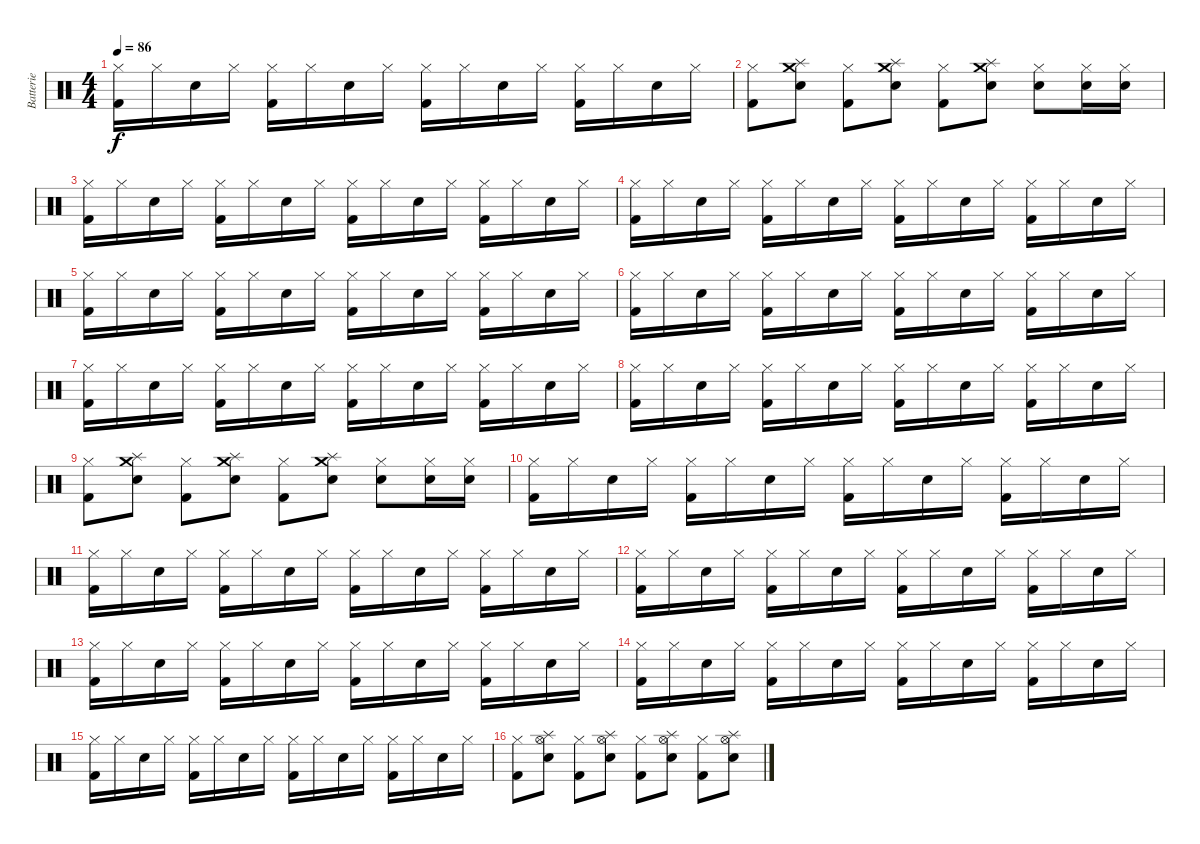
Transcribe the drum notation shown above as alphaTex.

\track ("Batterie" "Batterie") {instrument percussion}
\staff {score}
\articulation defaults
\ts (4 4)
\tempo 86
\clef neutral
\ks c
("Hi-Hat (closed)" "Kick (hit) 2").16{dy f} "Hi-Hat (closed)".16 "Snare (hit) 2".16 "Hi-Hat (closed)".16 ("Hi-Hat (closed)" "Kick (hit) 2").16 "Hi-Hat (closed)".16 "Snare (hit) 2".16 "Hi-Hat (closed)".16 ("Hi-Hat (closed)" "Kick (hit) 2").16 "Hi-Hat (closed)".16 "Snare (hit) 2".16 "Hi-Hat (closed)".16 ("Hi-Hat (closed)" "Kick (hit) 2").16 "Hi-Hat (closed)".16 "Snare (hit) 2".16 "Hi-Hat (closed)".16 |
("Hi-Hat (closed)" "Kick (hit) 2").8 ("Snare (hit) 2" "Splash (hit)" "Crash medium (hit)").8 ("Hi-Hat (closed)" "Kick (hit) 2").8 ("Snare (hit) 2" "Splash (hit)" "Crash medium (hit)").8 ("Hi-Hat (closed)" "Kick (hit) 2").8 ("Snare (hit) 2" "Splash (hit)" "Crash medium (hit)").8 ("Hi-Hat (closed)" "Snare (hit) 2").8 ("Hi-Hat (closed)" "Snare (hit) 2").16 ("Hi-Hat (closed)" "Snare (hit) 2").16 |
("Hi-Hat (closed)" "Kick (hit) 2").16 "Hi-Hat (closed)".16 "Snare (hit) 2".16 "Hi-Hat (closed)".16 ("Hi-Hat (closed)" "Kick (hit) 2").16 "Hi-Hat (closed)".16 "Snare (hit) 2".16 "Hi-Hat (closed)".16 ("Hi-Hat (closed)" "Kick (hit) 2").16 "Hi-Hat (closed)".16 "Snare (hit) 2".16 "Hi-Hat (closed)".16 ("Hi-Hat (closed)" "Kick (hit) 2").16 "Hi-Hat (closed)".16 "Snare (hit) 2".16 "Hi-Hat (closed)".16 |
("Hi-Hat (closed)" "Kick (hit) 2").16 "Hi-Hat (closed)".16 "Snare (hit) 2".16 "Hi-Hat (closed)".16 ("Hi-Hat (closed)" "Kick (hit) 2").16 "Hi-Hat (closed)".16 "Snare (hit) 2".16 "Hi-Hat (closed)".16 ("Hi-Hat (closed)" "Kick (hit) 2").16 "Hi-Hat (closed)".16 "Snare (hit) 2".16 "Hi-Hat (closed)".16 ("Hi-Hat (closed)" "Kick (hit) 2").16 "Hi-Hat (closed)".16 "Snare (hit) 2".16 "Hi-Hat (closed)".16 |
("Hi-Hat (closed)" "Kick (hit) 2").16 "Hi-Hat (closed)".16 "Snare (hit) 2".16 "Hi-Hat (closed)".16 ("Hi-Hat (closed)" "Kick (hit) 2").16 "Hi-Hat (closed)".16 "Snare (hit) 2".16 "Hi-Hat (closed)".16 ("Hi-Hat (closed)" "Kick (hit) 2").16 "Hi-Hat (closed)".16 "Snare (hit) 2".16 "Hi-Hat (closed)".16 ("Hi-Hat (closed)" "Kick (hit) 2").16 "Hi-Hat (closed)".16 "Snare (hit) 2".16 "Hi-Hat (closed)".16 |
("Hi-Hat (closed)" "Kick (hit) 2").16 "Hi-Hat (closed)".16 "Snare (hit) 2".16 "Hi-Hat (closed)".16 ("Hi-Hat (closed)" "Kick (hit) 2").16 "Hi-Hat (closed)".16 "Snare (hit) 2".16 "Hi-Hat (closed)".16 ("Hi-Hat (closed)" "Kick (hit) 2").16 "Hi-Hat (closed)".16 "Snare (hit) 2".16 "Hi-Hat (closed)".16 ("Hi-Hat (closed)" "Kick (hit) 2").16 "Hi-Hat (closed)".16 "Snare (hit) 2".16 "Hi-Hat (closed)".16 |
("Hi-Hat (closed)" "Kick (hit) 2").16 "Hi-Hat (closed)".16 "Snare (hit) 2".16 "Hi-Hat (closed)".16 ("Hi-Hat (closed)" "Kick (hit) 2").16 "Hi-Hat (closed)".16 "Snare (hit) 2".16 "Hi-Hat (closed)".16 ("Hi-Hat (closed)" "Kick (hit) 2").16 "Hi-Hat (closed)".16 "Snare (hit) 2".16 "Hi-Hat (closed)".16 ("Hi-Hat (closed)" "Kick (hit) 2").16 "Hi-Hat (closed)".16 "Snare (hit) 2".16 "Hi-Hat (closed)".16 |
("Hi-Hat (closed)" "Kick (hit) 2").16 "Hi-Hat (closed)".16 "Snare (hit) 2".16 "Hi-Hat (closed)".16 ("Hi-Hat (closed)" "Kick (hit) 2").16 "Hi-Hat (closed)".16 "Snare (hit) 2".16 "Hi-Hat (closed)".16 ("Hi-Hat (closed)" "Kick (hit) 2").16 "Hi-Hat (closed)".16 "Snare (hit) 2".16 "Hi-Hat (closed)".16 ("Hi-Hat (closed)" "Kick (hit) 2").16 "Hi-Hat (closed)".16 "Snare (hit) 2".16 "Hi-Hat (closed)".16 |
("Hi-Hat (closed)" "Kick (hit) 2").8 ("Snare (hit) 2" "Splash (hit)" "Crash medium (hit)").8 ("Hi-Hat (closed)" "Kick (hit) 2").8 ("Snare (hit) 2" "Splash (hit)" "Crash medium (hit)").8 ("Hi-Hat (closed)" "Kick (hit) 2").8 ("Snare (hit) 2" "Splash (hit)" "Crash medium (hit)").8 ("Hi-Hat (closed)" "Snare (hit) 2").8 ("Hi-Hat (closed)" "Snare (hit) 2").16 ("Hi-Hat (closed)" "Snare (hit) 2").16 |
("Hi-Hat (closed)" "Kick (hit) 2").16 "Hi-Hat (closed)".16 "Snare (hit) 2".16 "Hi-Hat (closed)".16 ("Hi-Hat (closed)" "Kick (hit) 2").16 "Hi-Hat (closed)".16 "Snare (hit) 2".16 "Hi-Hat (closed)".16 ("Hi-Hat (closed)" "Kick (hit) 2").16 "Hi-Hat (closed)".16 "Snare (hit) 2".16 "Hi-Hat (closed)".16 ("Hi-Hat (closed)" "Kick (hit) 2").16 "Hi-Hat (closed)".16 "Snare (hit) 2".16 "Hi-Hat (closed)".16 |
("Hi-Hat (closed)" "Kick (hit) 2").16 "Hi-Hat (closed)".16 "Snare (hit) 2".16 "Hi-Hat (closed)".16 ("Hi-Hat (closed)" "Kick (hit) 2").16 "Hi-Hat (closed)".16 "Snare (hit) 2".16 "Hi-Hat (closed)".16 ("Hi-Hat (closed)" "Kick (hit) 2").16 "Hi-Hat (closed)".16 "Snare (hit) 2".16 "Hi-Hat (closed)".16 ("Hi-Hat (closed)" "Kick (hit) 2").16 "Hi-Hat (closed)".16 "Snare (hit) 2".16 "Hi-Hat (closed)".16 |
("Hi-Hat (closed)" "Kick (hit) 2").16 "Hi-Hat (closed)".16 "Snare (hit) 2".16 "Hi-Hat (closed)".16 ("Hi-Hat (closed)" "Kick (hit) 2").16 "Hi-Hat (closed)".16 "Snare (hit) 2".16 "Hi-Hat (closed)".16 ("Hi-Hat (closed)" "Kick (hit) 2").16 "Hi-Hat (closed)".16 "Snare (hit) 2".16 "Hi-Hat (closed)".16 ("Hi-Hat (closed)" "Kick (hit) 2").16 "Hi-Hat (closed)".16 "Snare (hit) 2".16 "Hi-Hat (closed)".16 |
("Hi-Hat (closed)" "Kick (hit) 2").16 "Hi-Hat (closed)".16 "Snare (hit) 2".16 "Hi-Hat (closed)".16 ("Hi-Hat (closed)" "Kick (hit) 2").16 "Hi-Hat (closed)".16 "Snare (hit) 2".16 "Hi-Hat (closed)".16 ("Hi-Hat (closed)" "Kick (hit) 2").16 "Hi-Hat (closed)".16 "Snare (hit) 2".16 "Hi-Hat (closed)".16 ("Hi-Hat (closed)" "Kick (hit) 2").16 "Hi-Hat (closed)".16 "Snare (hit) 2".16 "Hi-Hat (closed)".16 |
("Hi-Hat (closed)" "Kick (hit) 2").16 "Hi-Hat (closed)".16 "Snare (hit) 2".16 "Hi-Hat (closed)".16 ("Hi-Hat (closed)" "Kick (hit) 2").16 "Hi-Hat (closed)".16 "Snare (hit) 2".16 "Hi-Hat (closed)".16 ("Hi-Hat (closed)" "Kick (hit) 2").16 "Hi-Hat (closed)".16 "Snare (hit) 2".16 "Hi-Hat (closed)".16 ("Hi-Hat (closed)" "Kick (hit) 2").16 "Hi-Hat (closed)".16 "Snare (hit) 2".16 "Hi-Hat (closed)".16 |
("Hi-Hat (closed)" "Kick (hit) 2").16 "Hi-Hat (closed)".16 "Snare (hit) 2".16 "Hi-Hat (closed)".16 ("Hi-Hat (closed)" "Kick (hit) 2").16 "Hi-Hat (closed)".16 "Snare (hit) 2".16 "Hi-Hat (closed)".16 ("Hi-Hat (closed)" "Kick (hit) 2").16 "Hi-Hat (closed)".16 "Snare (hit) 2".16 "Hi-Hat (closed)".16 ("Hi-Hat (closed)" "Kick (hit) 2").16 "Hi-Hat (closed)".16 "Snare (hit) 2".16 "Hi-Hat (closed)".16 |
("Hi-Hat (closed)" "Kick (hit) 2").8 ("Hi-Hat (open)" "Splash (hit)" "Snare (hit) 2").8 ("Hi-Hat (closed)" "Kick (hit) 2").8 ("Hi-Hat (open)" "Splash (hit)" "Snare (hit) 2").8 ("Hi-Hat (closed)" "Kick (hit) 2").8 ("Hi-Hat (open)" "Splash (hit)" "Snare (hit) 2").8 ("Hi-Hat (closed)" "Kick (hit) 2").8 ("Hi-Hat (open)" "Splash (hit)" "Snare (hit) 2").8
